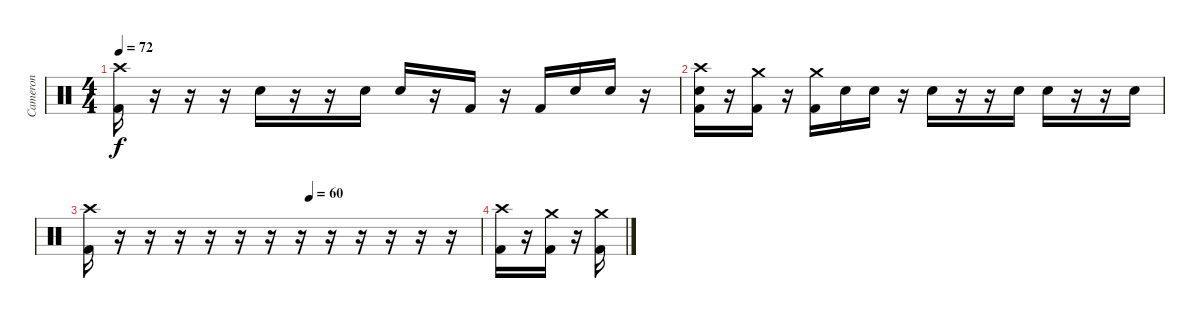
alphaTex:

\track ("Cameron" "Cameron") {instrument percussion}
\staff {score}
\articulation defaults
\ts (4 4)
\tempo 72
\clef neutral
\ks c
("Crash high (hit)" "Kick (hit) 2").16{dy f} r.16 r.16 r.16 "Electric Snare (hit)".16 r.16 r.16 "Electric Snare (hit)".16 "Electric Snare (hit)".16 r.16 "Kick (hit) 2".16 r.16 "Kick (hit) 2".16 "Electric Snare (hit)".16 "Electric Snare (hit)".16 r.16 |
("Crash high (hit)" "Electric Snare (hit)" "Kick (hit) 2").16 r.16 ("Crash medium (hit)" "Kick (hit) 2").16 r.16 ("Crash medium (hit)" "Kick (hit) 2").16 "Electric Snare (hit)".16 "Electric Snare (hit)".16 r.16 "Electric Snare (hit)".16 r.16 r.16 "Electric Snare (hit)".16 "Electric Snare (hit)".16 r.16 r.16 "Electric Snare (hit)".16 |
\tempo (60 0.5625)
("Crash high (hit)" "Kick (hit) 2").16 r.16 r.16 r.16 r.16 r.16 r.16 r.16 r.16 r.16 r.16 r.16 r.16 |
("Crash high (hit)" "Kick (hit) 2").16 r.16 ("Crash medium (hit)" "Kick (hit) 2").16 r.16 ("Crash medium (hit)" "Kick (hit) 2").16
